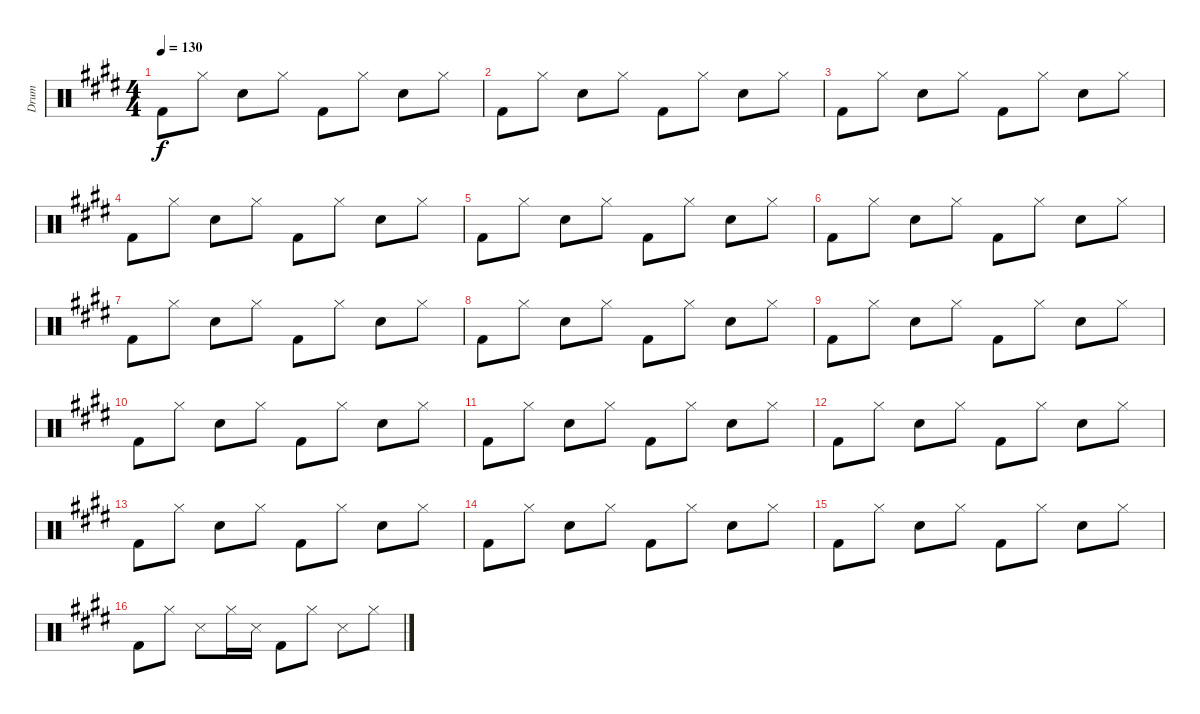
\track ("Drum" "Drum") {instrument percussion}
\staff {score}
\articulation defaults
\ts (4 4)
\tempo 130
\clef neutral
\ks c#minor "Kick (hit) 2".8{dy f} "Hi-Hat (closed)".8 "Electric Snare (hit)".8 "Hi-Hat (closed)".8 "Kick (hit) 2".8 "Hi-Hat (closed)".8 "Electric Snare (hit)".8 "Hi-Hat (closed)".8
|
"Kick (hit) 2".8 "Hi-Hat (closed)".8 "Electric Snare (hit)".8 "Hi-Hat (closed)".8 "Kick (hit) 2".8 "Hi-Hat (closed)".8 "Electric Snare (hit)".8 "Hi-Hat (closed)".8 |
"Kick (hit) 2".8 "Hi-Hat (closed)".8 "Electric Snare (hit)".8 "Hi-Hat (closed)".8 "Kick (hit) 2".8 "Hi-Hat (closed)".8 "Electric Snare (hit)".8 "Hi-Hat (closed)".8 |
"Kick (hit) 2".8 "Hi-Hat (closed)".8 "Electric Snare (hit)".8 "Hi-Hat (closed)".8 "Kick (hit) 2".8 "Hi-Hat (closed)".8 "Electric Snare (hit)".8 "Hi-Hat (closed)".8 |
"Kick (hit) 2".8 "Hi-Hat (closed)".8 "Electric Snare (hit)".8 "Hi-Hat (closed)".8 "Kick (hit) 2".8 "Hi-Hat (closed)".8 "Electric Snare (hit)".8 "Hi-Hat (closed)".8 |
"Kick (hit) 2".8 "Hi-Hat (closed)".8 "Electric Snare (hit)".8 "Hi-Hat (closed)".8 "Kick (hit) 2".8 "Hi-Hat (closed)".8 "Electric Snare (hit)".8 "Hi-Hat (closed)".8 |
"Kick (hit) 2".8 "Hi-Hat (closed)".8 "Electric Snare (hit)".8 "Hi-Hat (closed)".8 "Kick (hit) 2".8 "Hi-Hat (closed)".8 "Electric Snare (hit)".8 "Hi-Hat (closed)".8 |
"Kick (hit) 2".8 "Hi-Hat (closed)".8 "Electric Snare (hit)".8 "Hi-Hat (closed)".8 "Kick (hit) 2".8 "Hi-Hat (closed)".8 "Electric Snare (hit)".8 "Hi-Hat (closed)".8 |
"Kick (hit) 2".8 "Hi-Hat (closed)".8 "Electric Snare (hit)".8 "Hi-Hat (closed)".8 "Kick (hit) 2".8 "Hi-Hat (closed)".8 "Electric Snare (hit)".8 "Hi-Hat (closed)".8 |
"Kick (hit) 2".8 "Hi-Hat (closed)".8 "Electric Snare (hit)".8 "Hi-Hat (closed)".8 "Kick (hit) 2".8 "Hi-Hat (closed)".8 "Electric Snare (hit)".8 "Hi-Hat (closed)".8 |
"Kick (hit) 2".8 "Hi-Hat (closed)".8 "Electric Snare (hit)".8 "Hi-Hat (closed)".8 "Kick (hit) 2".8 "Hi-Hat (closed)".8 "Electric Snare (hit)".8 "Hi-Hat (closed)".8 |
"Kick (hit) 2".8 "Hi-Hat (closed)".8 "Electric Snare (hit)".8 "Hi-Hat (closed)".8 "Kick (hit) 2".8 "Hi-Hat (closed)".8 "Electric Snare (hit)".8 "Hi-Hat (closed)".8 |
"Kick (hit) 2".8 "Hi-Hat (closed)".8 "Electric Snare (hit)".8 "Hi-Hat (closed)".8 "Kick (hit) 2".8 "Hi-Hat (closed)".8 "Electric Snare (hit)".8 "Hi-Hat (closed)".8 |
"Kick (hit) 2".8 "Hi-Hat (closed)".8 "Electric Snare (hit)".8 "Hi-Hat (closed)".8 "Kick (hit) 2".8 "Hi-Hat (closed)".8 "Electric Snare (hit)".8 "Hi-Hat (closed)".8 |
"Kick (hit) 2".8 "Hi-Hat (closed)".8 "Electric Snare (hit)".8 "Hi-Hat (closed)".8 "Kick (hit) 2".8 "Hi-Hat (closed)".8 "Electric Snare (hit)".8 "Hi-Hat (closed)".8 |
"Kick (hit) 2".8 "Hi-Hat (closed)".8 "Snare (side stick) 3".8 "Hi-Hat (closed)".16 "Snare (side stick) 3".16 "Kick (hit) 2".8 "Hi-Hat (closed)".8 "Snare (side stick) 3".8 "Hi-Hat (closed)".8
